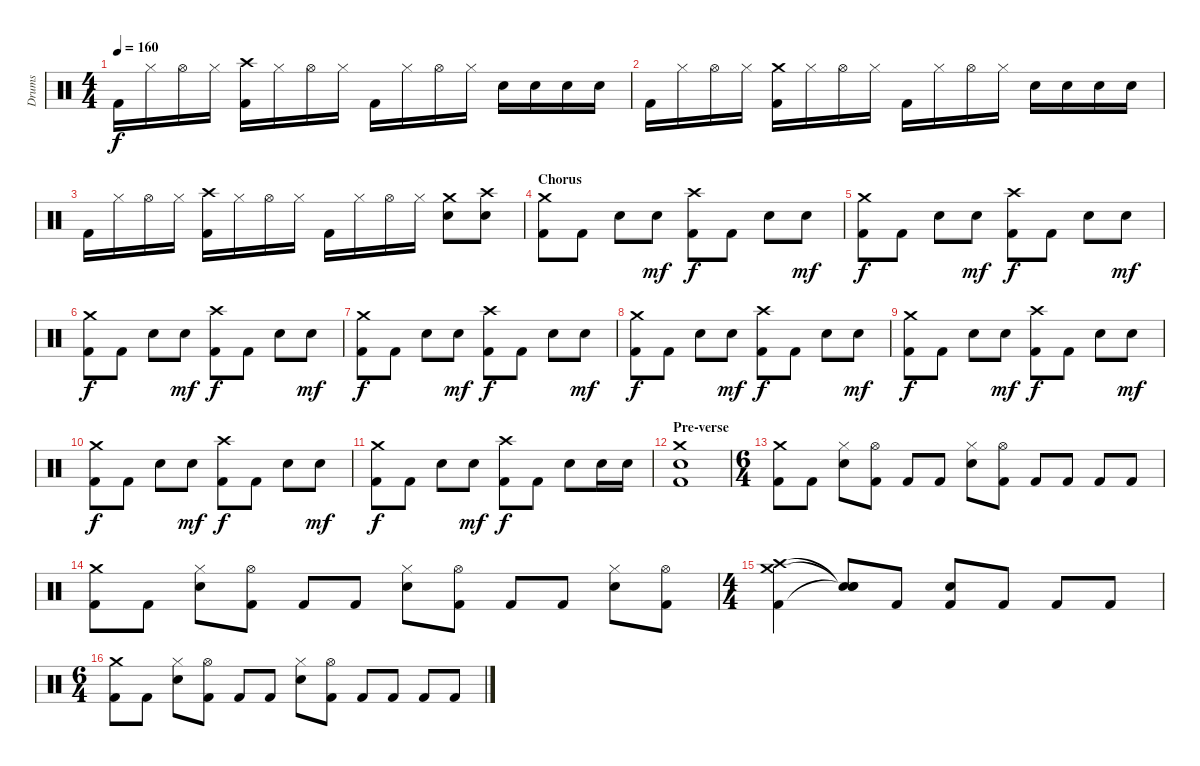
\track ("Drums" "Drums") {instrument percussion}
\staff {score}
\articulation defaults
\ts (4 4)
\tempo 160
\clef neutral
\ks c "Kick (hit) 2".16{dy f} "Hi-Hat (closed)".16 "Hi-Hat (open)".16 "Hi-Hat (closed)".16
("Crash high (hit)" "Kick (hit) 2").16 "Hi-Hat (closed)".16 "Hi-Hat (open)".16 "Hi-Hat (closed)".16 "Kick (hit) 2".16 "Hi-Hat (closed)".16 "Hi-Hat (open)".16 "Hi-Hat (closed)".16 "Snare (hit) 2".16 "Snare (hit) 2".16 "Snare (hit) 2".16 "Snare (hit) 2".16 |
"Kick (hit) 2".16 "Hi-Hat (closed)".16 "Hi-Hat (open)".16 "Hi-Hat (closed)".16 ("Crash medium (hit)" "Kick (hit) 2").16 "Hi-Hat (closed)".16 "Hi-Hat (open)".16 "Hi-Hat (closed)".16 "Kick (hit) 2".16 "Hi-Hat (closed)".16 "Hi-Hat (open)".16 "Hi-Hat (closed)".16 "Snare (hit) 2".16 "Snare (hit) 2".16 "Snare (hit) 2".16 "Snare (hit) 2".16 |
"Kick (hit) 2".16 "Hi-Hat (closed)".16 "Hi-Hat (open)".16 "Hi-Hat (closed)".16 ("Crash high (hit)" "Kick (hit) 2").16 "Hi-Hat (closed)".16 "Hi-Hat (open)".16 "Hi-Hat (closed)".16 "Kick (hit) 2".16 "Hi-Hat (closed)".16 "Hi-Hat (open)".16 "Hi-Hat (closed)".16 ("Crash medium (hit)" "Snare (hit) 2").8 ("Crash high (hit)" "Snare (hit) 2").8 |
\section ("" "Chorus")
("Crash medium (hit)" "Kick (hit) 2").8 "Kick (hit) 2".8 "Snare (hit) 2".8 "Snare (hit) 2".8{dy mf} ("Crash high (hit)" "Kick (hit) 2").8{dy f} "Kick (hit) 2".8 "Snare (hit) 2".8 "Snare (hit) 2".8{dy mf} |
("Crash medium (hit)" "Kick (hit) 2").8{dy f} "Kick (hit) 2".8 "Snare (hit) 2".8 "Snare (hit) 2".8{dy mf} ("Crash high (hit)" "Kick (hit) 2").8{dy f} "Kick (hit) 2".8 "Snare (hit) 2".8 "Snare (hit) 2".8{dy mf} |
("Crash medium (hit)" "Kick (hit) 2").8{dy f} "Kick (hit) 2".8 "Snare (hit) 2".8 "Snare (hit) 2".8{dy mf} ("Crash high (hit)" "Kick (hit) 2").8{dy f} "Kick (hit) 2".8 "Snare (hit) 2".8 "Snare (hit) 2".8{dy mf} |
("Crash medium (hit)" "Kick (hit) 2").8{dy f} "Kick (hit) 2".8 "Snare (hit) 2".8 "Snare (hit) 2".8{dy mf} ("Crash high (hit)" "Kick (hit) 2").8{dy f} "Kick (hit) 2".8 "Snare (hit) 2".8 "Snare (hit) 2".8{dy mf} |
("Crash medium (hit)" "Kick (hit) 2").8{dy f} "Kick (hit) 2".8 "Snare (hit) 2".8 "Snare (hit) 2".8{dy mf} ("Crash high (hit)" "Kick (hit) 2").8{dy f} "Kick (hit) 2".8 "Snare (hit) 2".8 "Snare (hit) 2".8{dy mf} |
("Crash medium (hit)" "Kick (hit) 2").8{dy f} "Kick (hit) 2".8 "Snare (hit) 2".8 "Snare (hit) 2".8{dy mf} ("Crash high (hit)" "Kick (hit) 2").8{dy f} "Kick (hit) 2".8 "Snare (hit) 2".8 "Snare (hit) 2".8{dy mf} |
("Crash medium (hit)" "Kick (hit) 2").8{dy f} "Kick (hit) 2".8 "Snare (hit) 2".8 "Snare (hit) 2".8{dy mf} ("Crash high (hit)" "Kick (hit) 2").8{dy f} "Kick (hit) 2".8 "Snare (hit) 2".8 "Snare (hit) 2".8{dy mf} |
("Crash medium (hit)" "Kick (hit) 2").8{dy f} "Kick (hit) 2".8 "Snare (hit) 2".8 "Snare (hit) 2".8{dy mf} ("Crash high (hit)" "Kick (hit) 2").8{dy f} "Kick (hit) 2".8 "Snare (hit) 2".8 "Snare (hit) 2".16 "Snare (hit) 2".16 |
\section ("" "Pre-verse")
("Crash medium (hit)" "Snare (hit) 2" "Kick (hit) 2").1 |
\ts (6 4)
("Crash medium (hit)" "Kick (hit) 2").8 "Kick (hit) 2".8 ("Hi-Hat (closed)" "Snare (hit) 2").8 ("Hi-Hat (open)" "Kick (hit) 2").8 "Kick (hit) 2".8 "Kick (hit) 2".8 ("Hi-Hat (closed)" "Snare (hit) 2").8 ("Hi-Hat (open)" "Kick (hit) 2").8 "Kick (hit) 2".8 "Kick (hit) 2".8 "Kick (hit) 2".8 "Kick (hit) 2".8 |
("Crash medium (hit)" "Kick (hit) 2").8 "Kick (hit) 2".8 ("Hi-Hat (closed)" "Snare (hit) 2").8 ("Hi-Hat (open)" "Kick (hit) 2").8 "Kick (hit) 2".8 "Kick (hit) 2".8 ("Hi-Hat (closed)" "Snare (hit) 2").8 ("Hi-Hat (open)" "Kick (hit) 2").8 "Kick (hit) 2".8 "Kick (hit) 2".8 ("Hi-Hat (closed)" "Snare (hit) 2").8 ("Hi-Hat (open)" "Kick (hit) 2").8 |
\ts (4 4)
("Crash medium (hit)" "Crash high (hit)" "Kick (hit) 2").4 ("Snare (hit)"{t} "Snare (hit)"{t} "Snare (hit)"{t}).8 "Kick (hit) 2".8 ("Snare (hit) 2" "Kick (hit) 2").8 "Kick (hit) 2".8 "Kick (hit) 2".8 "Kick (hit) 2".8 |
\ts (6 4)
("Crash medium (hit)" "Kick (hit) 2").8 "Kick (hit) 2".8 ("Hi-Hat (closed)" "Snare (hit) 2").8 ("Hi-Hat (open)" "Kick (hit) 2").8 "Kick (hit) 2".8 "Kick (hit) 2".8 ("Hi-Hat (closed)" "Snare (hit) 2").8 ("Hi-Hat (open)" "Kick (hit) 2").8 "Kick (hit) 2".8 "Kick (hit) 2".8 "Kick (hit) 2".8 "Kick (hit) 2".8
